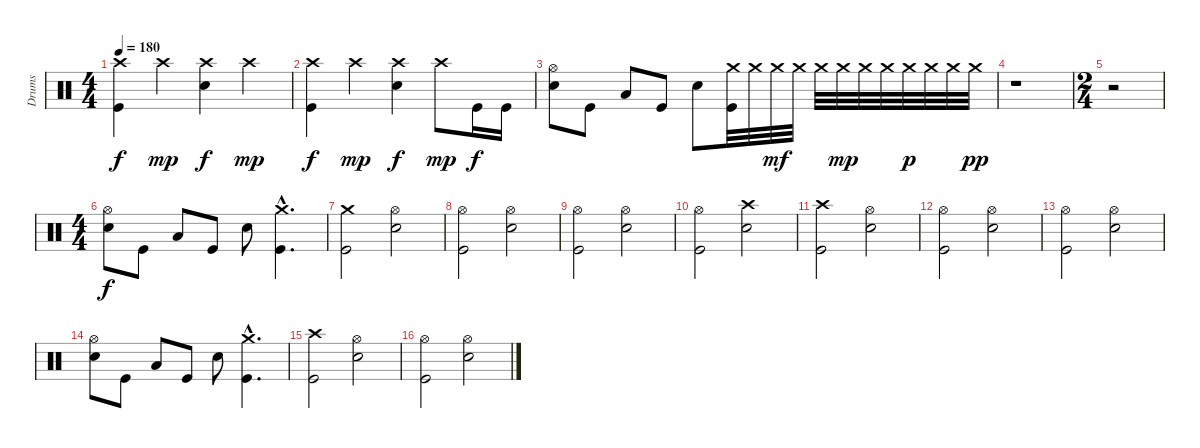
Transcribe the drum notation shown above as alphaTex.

\track ("Drums" "Drums") {instrument percussion}
\staff {score}
\articulation defaults
\ts (4 4)
\tempo 180
\clef neutral
\ks c
("Crash high (hit)" "Kick (hit)").4{dy f} "Crash high (hit)".4{dy mp} ("Crash high (hit)" "Electric Snare (hit)").4{dy f} "Crash high (hit)".4{dy mp} |
("Crash high (hit)" "Kick (hit)").4{dy f} "Crash high (hit)".4{dy mp} ("Crash high (hit)" "Electric Snare (hit)").4{dy f} "Crash high (hit)".8{dy mp} "Kick (hit)".16{dy f} "Kick (hit)".16 |
("Hi-Hat (open)" "Electric Snare (hit)").8 "Kick (hit)".8 "Low Tom (hit)".8 "Kick (hit)".8 "Electric Snare (hit)".8 ("Crash medium (hit)" "Kick (hit)").32 "Crash medium (hit)".32 "Crash medium (hit)".32{dy mf} "Crash medium (hit)".32 "Crash medium (hit)".32 "Crash medium (hit)".32{dy mp} "Crash medium (hit)".32 "Crash medium (hit)".32 "Crash medium (hit)".32{dy p} "Crash medium (hit)".32 "Crash medium (hit)".32 "Crash medium (hit)".32{dy pp} |
r.1 |
\ts (2 4)
r.2 |
\ts (4 4)
("Hi-Hat (open)" "Electric Snare (hit)").8{dy f} "Kick (hit)".8 "Low Tom (hit)".8 "Kick (hit)".8 "Electric Snare (hit)".8 ("Crash medium (hit)"{hac} "Kick (hit)"{hac}).4{d} |
("Crash medium (hit)" "Kick (hit)").2 ("Hi-Hat (open)" "Electric Snare (hit)").2 |
("Hi-Hat (open)" "Kick (hit)").2 ("Hi-Hat (open)" "Electric Snare (hit)").2 |
("Hi-Hat (open)" "Kick (hit)").2 ("Hi-Hat (open)" "Electric Snare (hit)").2 |
("Hi-Hat (open)" "Kick (hit)").2 ("Crash high (hit)" "Electric Snare (hit)").2 |
("Crash high (hit)" "Kick (hit)").2 ("Hi-Hat (open)" "Electric Snare (hit)").2 |
("Hi-Hat (open)" "Kick (hit)").2 ("Hi-Hat (open)" "Electric Snare (hit)").2 |
("Hi-Hat (open)" "Kick (hit)").2 ("Hi-Hat (open)" "Electric Snare (hit)").2 |
("Hi-Hat (open)" "Electric Snare (hit)").8 "Kick (hit)".8 "Low Tom (hit)".8 "Kick (hit)".8 "Electric Snare (hit)".8 ("Crash medium (hit)"{hac} "Kick (hit)"{hac}).4{d} |
("Crash high (hit)" "Kick (hit)").2 ("Hi-Hat (open)" "Electric Snare (hit)").2 |
("Hi-Hat (open)" "Kick (hit)").2 ("Hi-Hat (open)" "Electric Snare (hit)").2
